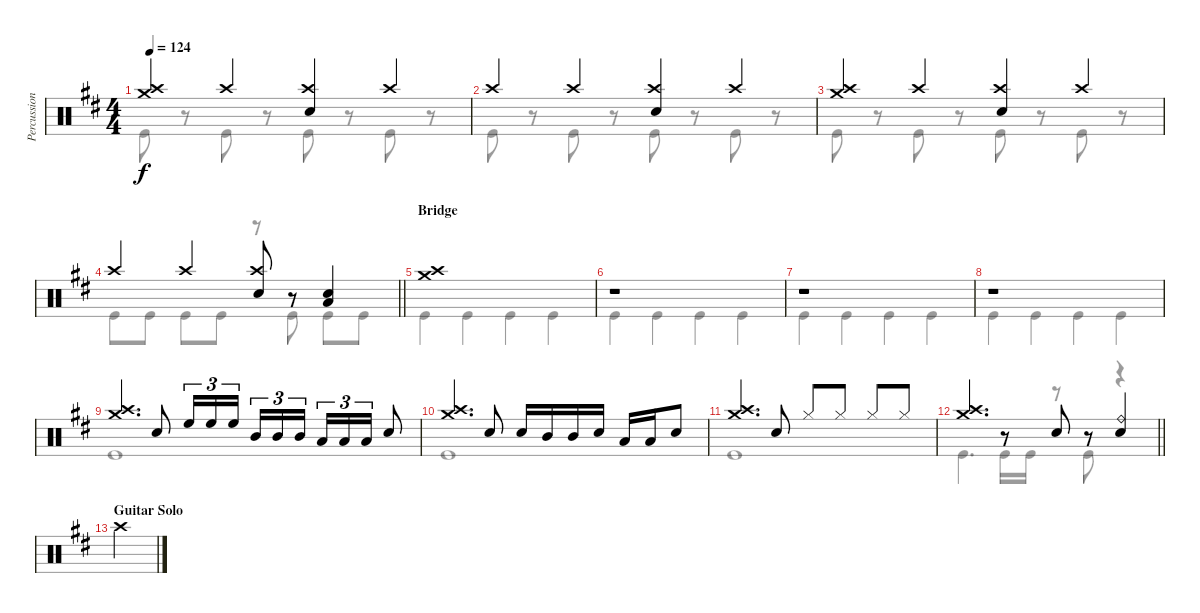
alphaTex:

\track ("Percussion" "Percussion") {instrument percussion}
\staff {score}
\articulation defaults
\voice
\ts (4 4)
\tempo 124
\clef neutral
\ks d
("Crash high (hit)" "Crash medium (hit)").4{dy f} "Crash high (hit)".4 ("Crash high (hit)" "Snare (hit) 2").4 "Crash high (hit)".4 |
"Crash high (hit)".4 "Crash high (hit)".4 ("Crash high (hit)" "Snare (hit) 2").4 "Crash high (hit)".4 |
("Crash high (hit)" "Crash medium (hit)").4 "Crash high (hit)".4 ("Crash high (hit)" "Snare (hit) 2").4 "Crash high (hit)".4 |
\barLineRight lightlight "Crash high (hit)".4 "Crash high (hit)".4
("Crash high (hit)" "Snare (hit) 2").8 r.8 ("Low Tom (hit)" "Snare (hit) 2").4 |
\section ("" "Bridge")
("Crash high (hit)" "Crash medium (hit)").1 |
r.1 |
r.1 |
r.1 |
("Crash high (hit)" "Crash medium (hit)").4{d} "Snare (hit) 2".8 "High Floor Tom (hit)".16{tu (3 2)} "High Floor Tom (hit)".16{tu (3 2)} "High Floor Tom (hit)".16{tu (3 2) beam splitsecondary} "Mid Tom (hit)".16{tu (3 2)} "Mid Tom (hit)".16{tu (3 2)} "Mid Tom (hit)".16{tu (3 2)} "Low Tom (hit)".16{tu (3 2)} "Low Tom (hit)".16{tu (3 2)} "Low Tom (hit)".16{tu (3 2)} "Snare (hit) 2".8 |
("Crash high (hit)" "Crash medium (hit)").4{d} "Snare (hit) 2".8 "Snare (hit) 2".16 "Mid Tom (hit)".16 "Mid Tom (hit)".16 "Snare (hit) 2".16 "Low Tom (hit)".16 "Low Tom (hit)".16 "Snare (hit) 2".8 |
("Crash high (hit)" "Crash medium (hit)").4{d} "Snare (hit) 2".8 "Hi-Hat (closed)".8 "Hi-Hat (closed)".8 "Hi-Hat (closed)".8 "Hi-Hat (closed)".8 |
\barLineRight lightlight
("Crash high (hit)" "Crash medium (hit)").4{d} r.8 "Snare (hit) 2".8 r.8 ("Ride (bell)" "Snare (hit) 2").4 |
\section ("" "Guitar Solo")
"Crash high (hit)".4 |
|
|
\voice
\clef neutral
\ottava regular
\simile none
\ks d "Kick (hit)".8{dy f}
r.8 "Kick (hit)".8 r.8 "Kick (hit)".8 r.8 "Kick (hit)".8 r.8 |
"Kick (hit)".8 r.8 "Kick (hit)".8 r.8 "Kick (hit)".8 r.8 "Kick (hit)".8 r.8 |
"Kick (hit)".8 r.8 "Kick (hit)".8 r.8 "Kick (hit)".8 r.8 "Kick (hit)".8 r.8 |
\barLineRight lightlight "Kick (hit)".8 "Kick (hit)".8 "Kick (hit)".8 "Kick (hit)".8
r.8 "Kick (hit)".8 "Kick (hit)".8 "Kick (hit)".8 |
"Kick (hit)".4 "Kick (hit)".4 "Kick (hit)".4 "Kick (hit)".4 |
"Kick (hit)".4 "Kick (hit)".4 "Kick (hit)".4 "Kick (hit)".4 |
"Kick (hit)".4 "Kick (hit)".4 "Kick (hit)".4 "Kick (hit)".4 |
"Kick (hit)".4 "Kick (hit)".4 "Kick (hit)".4 "Kick (hit)".4 |
"Kick (hit)".1 |
"Kick (hit)".1 |
"Kick (hit)".1 |
\barLineRight lightlight "Kick (hit)".4{d} "Kick (hit)".16 "Kick (hit)".16
r.8 "Kick (hit)".8 r.4 |
|
|
|
